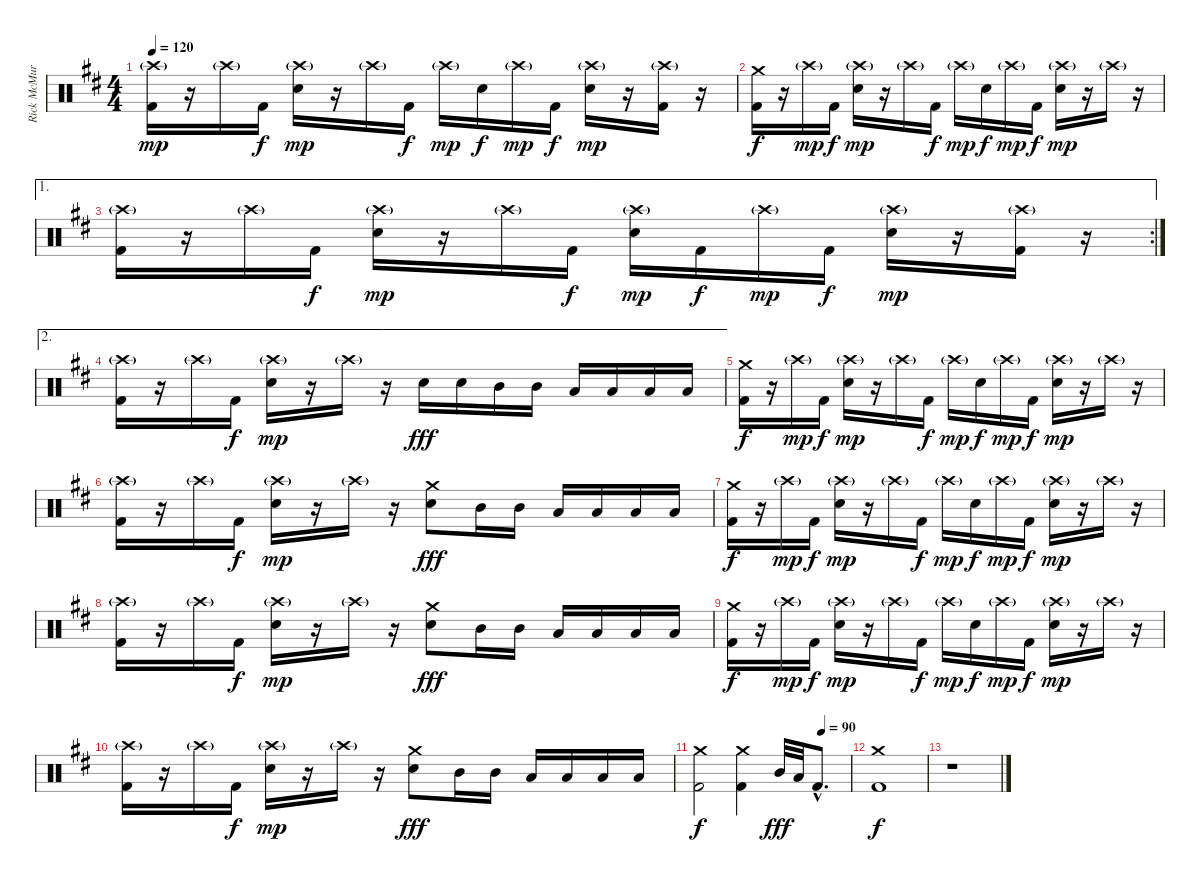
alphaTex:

\track ("Rick McMurray" "Rick McMur") {instrument percussion}
\staff {score}
\articulation defaults
\ts (4 4)
\tempo 120
\clef neutral
\ks d
("Crash high (hit)"{g} "Kick (hit) 2").16{dy mp} r.16 "Crash high (hit)"{g}.16 "Kick (hit) 2".16{dy f} ("Crash high (hit)"{g} "Snare (hit) 2").16{dy mp} r.16 "Crash high (hit)"{g}.16 "Kick (hit) 2".16{dy f} "Crash high (hit)"{g}.16{dy mp} "Snare (hit) 2".16{dy f} "Crash high (hit)"{g}.16{dy mp} "Kick (hit) 2".16{dy f} ("Crash high (hit)"{g} "Snare (hit) 2").16{dy mp} r.16 ("Crash high (hit)"{g} "Kick (hit) 2").16 r.16 |
("Crash medium (hit)" "Kick (hit) 2").16{dy f} r.16 "Crash high (hit)"{g}.16{dy mp} "Kick (hit) 2".16{dy f} ("Crash high (hit)"{g} "Snare (hit) 2").16{dy mp} r.16 "Crash high (hit)"{g}.16 "Kick (hit) 2".16{dy f} "Crash high (hit)"{g}.16{dy mp} "Snare (hit) 2".16{dy f} "Crash high (hit)"{g}.16{dy mp} "Kick (hit) 2".16{dy f} ("Crash high (hit)"{g} "Snare (hit) 2").16{dy mp} r.16 "Crash high (hit)"{g}.16 r.16 |
\ae 1
\rc 2
("Crash high (hit)"{g} "Kick (hit) 2").16 r.16 "Crash high (hit)"{g}.16 "Kick (hit) 2".16{dy f} ("Crash high (hit)"{g} "Snare (hit) 2").16{dy mp} r.16 "Crash high (hit)"{g}.16 "Kick (hit) 2".16{dy f} ("Crash high (hit)"{g} "Snare (hit) 2").16{dy mp} "Kick (hit) 2".16{dy f} "Crash high (hit)"{g}.16{dy mp} "Kick (hit) 2".16{dy f} ("Crash high (hit)"{g} "Snare (hit) 2").16{dy mp} r.16 ("Crash high (hit)"{g} "Kick (hit) 2").16 r.16 |
\ae 2
("Crash high (hit)"{g} "Kick (hit) 2").16 r.16 "Crash high (hit)"{g}.16 "Kick (hit) 2".16{dy f} ("Crash high (hit)"{g} "Snare (hit) 2").16{dy mp} r.16 "Crash high (hit)"{g}.16 r.16 "Snare (hit) 2".16{dy fff} "Snare (hit) 2".16 "Mid Tom (hit)".16 "Mid Tom (hit)".16 "Low Tom (hit)".16 "Low Tom (hit)".16 "Low Floor Tom (hit)".16 "Low Floor Tom (hit)".16 |
("Crash medium (hit)" "Kick (hit) 2").16{dy f} r.16 "Crash high (hit)"{g}.16{dy mp} "Kick (hit) 2".16{dy f} ("Crash high (hit)"{g} "Snare (hit) 2").16{dy mp} r.16 "Crash high (hit)"{g}.16 "Kick (hit) 2".16{dy f} "Crash high (hit)"{g}.16{dy mp} "Snare (hit) 2".16{dy f} "Crash high (hit)"{g}.16{dy mp} "Kick (hit) 2".16{dy f} ("Crash high (hit)"{g} "Snare (hit) 2").16{dy mp} r.16 "Crash high (hit)"{g}.16 r.16 |
("Crash high (hit)"{g} "Kick (hit) 2").16 r.16 "Crash high (hit)"{g}.16 "Kick (hit) 2".16{dy f} ("Crash high (hit)"{g} "Snare (hit) 2").16{dy mp} r.16 "Crash high (hit)"{g}.16 r.16 ("Crash medium (hit)" "Snare (hit) 2").8{dy fff} "Mid Tom (hit)".16 "Mid Tom (hit)".16 "Low Tom (hit)".16 "Low Tom (hit)".16 "Low Floor Tom (hit)".16 "Low Floor Tom (hit)".16 |
("Crash medium (hit)" "Kick (hit) 2").16{dy f} r.16 "Crash high (hit)"{g}.16{dy mp} "Kick (hit) 2".16{dy f} ("Crash high (hit)"{g} "Snare (hit) 2").16{dy mp} r.16 "Crash high (hit)"{g}.16 "Kick (hit) 2".16{dy f} "Crash high (hit)"{g}.16{dy mp} "Snare (hit) 2".16{dy f} "Crash high (hit)"{g}.16{dy mp} "Kick (hit) 2".16{dy f} ("Crash high (hit)"{g} "Snare (hit) 2").16{dy mp} r.16 "Crash high (hit)"{g}.16 r.16 |
("Crash high (hit)"{g} "Kick (hit) 2").16 r.16 "Crash high (hit)"{g}.16 "Kick (hit) 2".16{dy f} ("Crash high (hit)"{g} "Snare (hit) 2").16{dy mp} r.16 "Crash high (hit)"{g}.16 r.16 ("Crash medium (hit)" "Snare (hit) 2").8{dy fff} "Mid Tom (hit)".16 "Mid Tom (hit)".16 "Low Tom (hit)".16 "Low Tom (hit)".16 "Low Floor Tom (hit)".16 "Low Floor Tom (hit)".16 |
("Crash medium (hit)" "Kick (hit) 2").16{dy f} r.16 "Crash high (hit)"{g}.16{dy mp} "Kick (hit) 2".16{dy f} ("Crash high (hit)"{g} "Snare (hit) 2").16{dy mp} r.16 "Crash high (hit)"{g}.16 "Kick (hit) 2".16{dy f} "Crash high (hit)"{g}.16{dy mp} "Snare (hit) 2".16{dy f} "Crash high (hit)"{g}.16{dy mp} "Kick (hit) 2".16{dy f} ("Crash high (hit)"{g} "Snare (hit) 2").16{dy mp} r.16 "Crash high (hit)"{g}.16 r.16 |
("Crash high (hit)"{g} "Kick (hit) 2").16 r.16 "Crash high (hit)"{g}.16 "Kick (hit) 2".16{dy f} ("Crash high (hit)"{g} "Snare (hit) 2").16{dy mp} r.16 "Crash high (hit)"{g}.16 r.16 ("Crash medium (hit)" "Snare (hit) 2").8{dy fff} "Mid Tom (hit)".16 "Mid Tom (hit)".16 "Low Tom (hit)".16 "Low Tom (hit)".16 "Low Floor Tom (hit)".16 "Low Floor Tom (hit)".16 |
\tempo (90 0.8125)
("Crash medium (hit)" "Kick (hit) 2").2{dy f} ("Crash medium (hit)" "Kick (hit) 2").4 "Mid Tom (hit)".32{dy fff} "Low Tom (hit)".32 "Kick (hit) 2"{hac}.8{d} |
("Crash medium (hit)" "Kick (hit) 2").1{dy f} |
r.1
